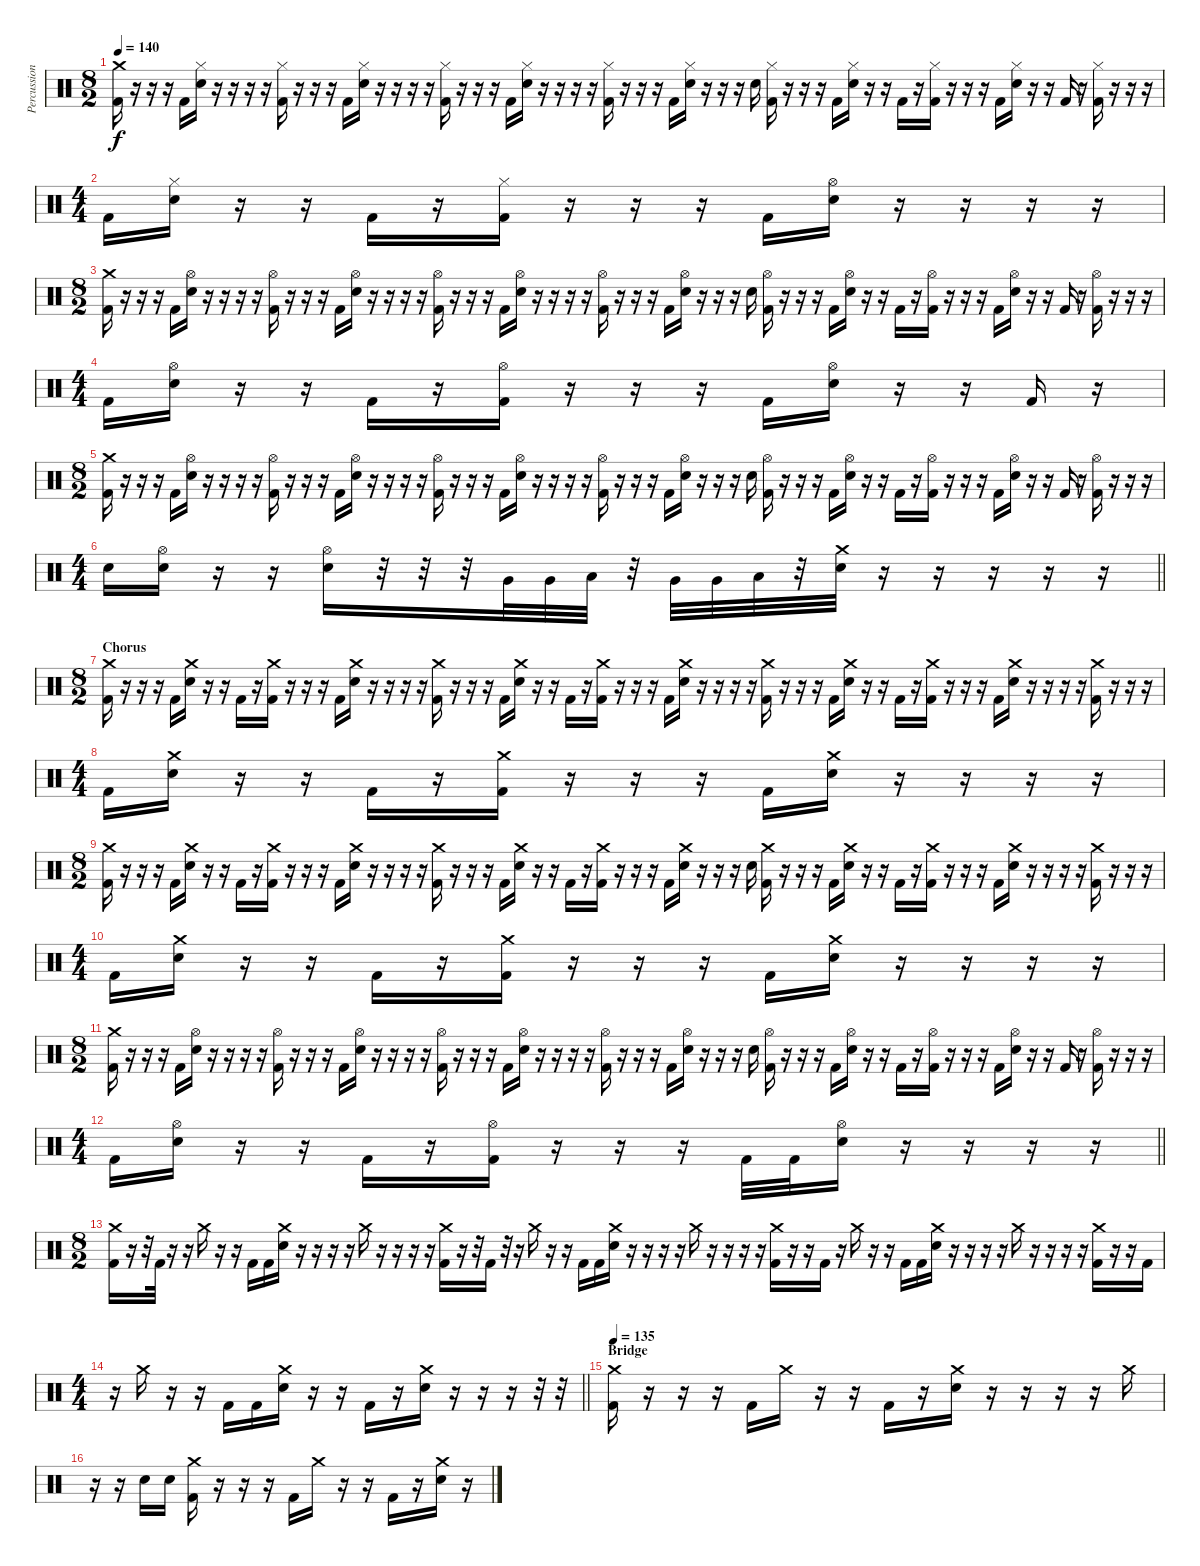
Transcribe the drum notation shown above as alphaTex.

\track ("Percussion" "Percussion") {instrument percussion}
\staff {score}
\articulation defaults
\ts (8 2)
\tempo 140
\clef neutral
\ks c
("Crash medium (hit)" "Kick (hit) 2").16{dy f} r.16 r.16 r.16 "Kick (hit) 2".16 ("Hi-Hat (closed)" "Electric Snare (hit)").16 r.16 r.16 r.16 r.16 ("Hi-Hat (closed)" "Kick (hit) 2").16 r.16 r.16 r.16 "Kick (hit) 2".16 ("Hi-Hat (closed)" "Electric Snare (hit)").16 r.16 r.16 r.16 r.16 ("Hi-Hat (closed)" "Kick (hit) 2").16 r.16 r.16 r.16 "Kick (hit) 2".16 ("Hi-Hat (closed)" "Electric Snare (hit)").16 r.16 r.16 r.16 r.16 ("Hi-Hat (closed)" "Kick (hit) 2").16 r.16 r.16 r.16 "Kick (hit) 2".16 ("Hi-Hat (closed)" "Electric Snare (hit)").16 r.16 r.16 r.16 "Electric Snare (hit)".16 ("Hi-Hat (closed)" "Kick (hit) 2").16 r.16 r.16 r.16 "Kick (hit) 2".16 ("Hi-Hat (closed)" "Electric Snare (hit)").16 r.16 r.16 "Kick (hit) 2".16 r.16 ("Hi-Hat (closed)" "Kick (hit) 2").16 r.16 r.16 r.16 "Kick (hit) 2".16 ("Hi-Hat (closed)" "Electric Snare (hit)").16 r.16 r.16 "Kick (hit) 2".16 r.16 ("Hi-Hat (closed)" "Kick (hit) 2").16 r.16 r.16 r.16 |
\ts (4 4)
"Kick (hit) 2".16 ("Hi-Hat (closed)" "Electric Snare (hit)").16 r.16 r.16 "Kick (hit) 2".16 r.16 ("Hi-Hat (closed)" "Kick (hit) 2").16 r.16 r.16 r.16 "Kick (hit) 2".16 ("Hi-Hat (open)" "Electric Snare (hit)").16 r.16 r.16 r.16 r.16 |
\ts (8 2)
("Crash medium (hit)" "Kick (hit) 2").16 r.16 r.16 r.16 "Kick (hit) 2".16 ("Hi-Hat (open)" "Electric Snare (hit)").16 r.16 r.16 r.16 r.16 ("Hi-Hat (open)" "Kick (hit) 2").16 r.16 r.16 r.16 "Kick (hit) 2".16 ("Hi-Hat (open)" "Electric Snare (hit)").16 r.16 r.16 r.16 r.16 ("Hi-Hat (open)" "Kick (hit) 2").16 r.16 r.16 r.16 "Kick (hit) 2".16 ("Hi-Hat (open)" "Electric Snare (hit)").16 r.16 r.16 r.16 r.16 ("Hi-Hat (open)" "Kick (hit) 2").16 r.16 r.16 r.16 "Kick (hit) 2".16 ("Hi-Hat (open)" "Electric Snare (hit)").16 r.16 r.16 r.16 "Electric Snare (hit)".16 ("Hi-Hat (open)" "Kick (hit) 2").16 r.16 r.16 r.16 "Kick (hit) 2".16 ("Hi-Hat (open)" "Electric Snare (hit)").16 r.16 r.16 "Kick (hit) 2".16 r.16 ("Hi-Hat (open)" "Kick (hit) 2").16 r.16 r.16 r.16 "Kick (hit) 2".16 ("Hi-Hat (open)" "Electric Snare (hit)").16 r.16 r.16 "Kick (hit) 2".16 r.16 ("Hi-Hat (open)" "Kick (hit) 2").16 r.16 r.16 r.16 |
\ts (4 4)
"Kick (hit) 2".16 ("Hi-Hat (open)" "Electric Snare (hit)").16 r.16 r.16 "Kick (hit) 2".16 r.16 ("Hi-Hat (open)" "Kick (hit) 2").16 r.16 r.16 r.16 "Kick (hit) 2".16 ("Hi-Hat (open)" "Electric Snare (hit)").16 r.16 r.16 "Kick (hit) 2".16 r.16 |
\ts (8 2)
("Crash medium (hit)" "Kick (hit) 2").16 r.16 r.16 r.16 "Kick (hit) 2".16 ("Hi-Hat (open)" "Electric Snare (hit)").16 r.16 r.16 r.16 r.16 ("Hi-Hat (open)" "Kick (hit) 2").16 r.16 r.16 r.16 "Kick (hit) 2".16 ("Hi-Hat (open)" "Electric Snare (hit)").16 r.16 r.16 r.16 r.16 ("Hi-Hat (open)" "Kick (hit) 2").16 r.16 r.16 r.16 "Kick (hit) 2".16 ("Hi-Hat (open)" "Electric Snare (hit)").16 r.16 r.16 r.16 r.16 ("Hi-Hat (open)" "Kick (hit) 2").16 r.16 r.16 r.16 "Kick (hit) 2".16 ("Hi-Hat (open)" "Electric Snare (hit)").16 r.16 r.16 r.16 "Electric Snare (hit)".16 ("Hi-Hat (open)" "Kick (hit) 2").16 r.16 r.16 r.16 "Kick (hit) 2".16 ("Hi-Hat (open)" "Electric Snare (hit)").16 r.16 r.16 "Kick (hit) 2".16 r.16 ("Hi-Hat (open)" "Kick (hit) 2").16 r.16 r.16 r.16 "Kick (hit) 2".16 ("Hi-Hat (open)" "Electric Snare (hit)").16 r.16 r.16 "Kick (hit) 2".16 r.16 ("Hi-Hat (open)" "Kick (hit) 2").16 r.16 r.16 r.16 |
\ts (4 4)
\barLineRight lightlight "Snare (hit)".16
("Hi-Hat (open)" "Electric Snare (hit)").16 r.16 r.16 ("Hi-Hat (open)" "Electric Snare (hit)").16 r.32 r.32 r.32 "Very Low Tom (hit)".32 "Very Low Tom (hit)".32 "Low Tom (hit)".32 r.32 "Very Low Tom (hit)".32 "Very Low Tom (hit)".32 "Low Tom (hit)".32 r.32 ("Crash medium (hit)" "Electric Snare (hit)").32 r.16 r.16 r.16 r.16 r.16 |
\ts (8 2)
\section ("" "Chorus")
("Crash medium (hit)" "Kick (hit) 2").16 r.16 r.16 r.16 "Kick (hit) 2".16 ("Crash medium (hit)" "Electric Snare (hit)").16 r.16 r.16 "Kick (hit) 2".16 r.16 ("Crash medium (hit)" "Kick (hit) 2").16 r.16 r.16 r.16 "Kick (hit) 2".16 ("Crash medium (hit)" "Electric Snare (hit)").16 r.16 r.16 r.16 r.16 ("Crash medium (hit)" "Kick (hit) 2").16 r.16 r.16 r.16 "Kick (hit) 2".16 ("Crash medium (hit)" "Electric Snare (hit)").16 r.16 r.16 "Kick (hit) 2".16 r.16 ("Crash medium (hit)" "Kick (hit) 2").16 r.16 r.16 r.16 "Kick (hit) 2".16 ("Crash medium (hit)" "Electric Snare (hit)").16 r.16 r.16 r.16 r.16 ("Crash medium (hit)" "Kick (hit) 2").16 r.16 r.16 r.16 "Kick (hit) 2".16 ("Crash medium (hit)" "Electric Snare (hit)").16 r.16 r.16 "Kick (hit) 2".16 r.16 ("Crash medium (hit)" "Kick (hit) 2").16 r.16 r.16 r.16 "Kick (hit) 2".16 ("Crash medium (hit)" "Electric Snare (hit)").16 r.16 r.16 r.16 r.16 ("Crash medium (hit)" "Kick (hit) 2").16 r.16 r.16 r.16 |
\ts (4 4)
"Kick (hit) 2".16 ("Crash medium (hit)" "Electric Snare (hit)").16 r.16 r.16 "Kick (hit) 2".16 r.16 ("Crash medium (hit)" "Kick (hit) 2").16 r.16 r.16 r.16 "Kick (hit) 2".16 ("Crash medium (hit)" "Electric Snare (hit)").16 r.16 r.16 r.16 r.16 |
\ts (8 2)
("Crash medium (hit)" "Kick (hit) 2").16 r.16 r.16 r.16 "Kick (hit) 2".16 ("Crash medium (hit)" "Electric Snare (hit)").16 r.16 r.16 "Kick (hit) 2".16 r.16 ("Crash medium (hit)" "Kick (hit) 2").16 r.16 r.16 r.16 "Kick (hit) 2".16 ("Crash medium (hit)" "Electric Snare (hit)").16 r.16 r.16 r.16 r.16 ("Crash medium (hit)" "Kick (hit) 2").16 r.16 r.16 r.16 "Kick (hit) 2".16 ("Crash medium (hit)" "Electric Snare (hit)").16 r.16 r.16 "Kick (hit) 2".16 r.16 ("Crash medium (hit)" "Kick (hit) 2").16 r.16 r.16 r.16 "Kick (hit) 2".16 ("Crash medium (hit)" "Electric Snare (hit)").16 r.16 r.16 r.16 "Electric Snare (hit)".16 ("Crash medium (hit)" "Kick (hit) 2").16 r.16 r.16 r.16 "Kick (hit) 2".16 ("Crash medium (hit)" "Electric Snare (hit)").16 r.16 r.16 "Kick (hit) 2".16 r.16 ("Crash medium (hit)" "Kick (hit) 2").16 r.16 r.16 r.16 "Kick (hit) 2".16 ("Crash medium (hit)" "Electric Snare (hit)").16 r.16 r.16 r.16 r.16 ("Crash medium (hit)" "Kick (hit) 2").16 r.16 r.16 r.16 |
\ts (4 4)
"Kick (hit) 2".16 ("Crash medium (hit)" "Electric Snare (hit)").16 r.16 r.16 "Kick (hit) 2".16 r.16 ("Crash medium (hit)" "Kick (hit) 2").16 r.16 r.16 r.16 "Kick (hit) 2".16 ("Crash medium (hit)" "Electric Snare (hit)").16 r.16 r.16 r.16 r.16 |
\ts (8 2)
("Crash medium (hit)" "Kick (hit) 2").16 r.16 r.16 r.16 "Kick (hit) 2".16 ("Hi-Hat (open)" "Electric Snare (hit)").16 r.16 r.16 r.16 r.16 ("Hi-Hat (open)" "Kick (hit) 2").16 r.16 r.16 r.16 "Kick (hit) 2".16 ("Hi-Hat (open)" "Electric Snare (hit)").16 r.16 r.16 r.16 r.16 ("Hi-Hat (open)" "Kick (hit) 2").16 r.16 r.16 r.16 "Kick (hit) 2".16 ("Hi-Hat (open)" "Electric Snare (hit)").16 r.16 r.16 r.16 r.16 ("Hi-Hat (open)" "Kick (hit) 2").16 r.16 r.16 r.16 "Kick (hit) 2".16 ("Hi-Hat (open)" "Electric Snare (hit)").16 r.16 r.16 r.16 "Electric Snare (hit)".16 ("Hi-Hat (open)" "Kick (hit) 2").16 r.16 r.16 r.16 "Kick (hit) 2".16 ("Hi-Hat (open)" "Electric Snare (hit)").16 r.16 r.16 "Kick (hit) 2".16 r.16 ("Hi-Hat (open)" "Kick (hit) 2").16 r.16 r.16 r.16 "Kick (hit) 2".16 ("Hi-Hat (open)" "Electric Snare (hit)").16 r.16 r.16 "Kick (hit) 2".16 r.16 ("Hi-Hat (open)" "Kick (hit) 2").16 r.16 r.16 r.16 |
\ts (4 4)
\barLineRight lightlight "Kick (hit) 2".16
("Hi-Hat (open)" "Electric Snare (hit)").16 r.16 r.16 "Kick (hit) 2".16 r.16 ("Hi-Hat (open)" "Kick (hit) 2").16 r.16 r.16 r.16 "Kick (hit) 2".32 "Kick (hit) 2".32 ("Hi-Hat (open)" "Electric Snare (hit)").16 r.16 r.16 r.16 r.16 |
\ts (8 2)
("Crash medium (hit)" "Kick (hit) 2").16 r.16 r.32 "Kick (hit) 2".32 r.16 r.16 "Crash medium (hit)".16 r.16 r.16 "Kick (hit) 2".16 "Kick (hit) 2".16 ("Crash medium (hit)" "Electric Snare (hit)").16 r.16 r.16 r.16 r.16 "Crash medium (hit)".16 r.16 r.16 r.16 r.16 ("Crash medium (hit)" "Kick (hit) 2").16 r.16 r.32 "Kick (hit) 2".16 r.32 r.16 "Crash medium (hit)".16 r.16 r.16 "Kick (hit) 2".16 "Kick (hit) 2".16 ("Crash medium (hit)" "Electric Snare (hit)").16 r.16 r.16 r.16 r.16 "Crash medium (hit)".16 r.16 r.16 r.16 r.16 ("Crash medium (hit)" "Kick (hit) 2").16 r.16 r.16 "Kick (hit) 2".16 r.16 "Crash medium (hit)".16 r.16 r.16 "Kick (hit) 2".16 "Kick (hit) 2".16 ("Crash medium (hit)" "Electric Snare (hit)").16 r.16 r.16 r.16 r.16 "Crash medium (hit)".16 r.16 r.16 r.16 r.16 ("Crash medium (hit)" "Kick (hit) 2").16 r.16 r.16 "Kick (hit) 2".16 |
\ts (4 4)
\barLineRight lightlight
r.16 "Crash medium (hit)".16 r.16 r.16 "Kick (hit) 2".16 "Kick (hit) 2".16 ("Crash medium (hit)" "Electric Snare (hit)").16 r.16 r.16 "Kick (hit) 2".16 r.16 ("Crash medium (hit)" "Electric Snare (hit)").16 r.16 r.16 r.16 r.32 r.32 |
\section ("" "Bridge")
\tempo 135
("Crash medium (hit)" "Kick (hit) 2").16 r.16 r.16 r.16 "Kick (hit) 2".16 "Crash medium (hit)".16 r.16 r.16 "Kick (hit) 2".16 r.16 ("Crash medium (hit)" "Electric Snare (hit)").16 r.16 r.16 r.16 r.16 "Crash medium (hit)".16 |
r.16 r.16 "Electric Snare (hit)".16 "Electric Snare (hit)".16 ("Crash medium (hit)" "Kick (hit) 2").16 r.16 r.16 r.16 "Kick (hit) 2".16 "Crash medium (hit)".16 r.16 r.16 "Kick (hit) 2".16 r.16 ("Crash medium (hit)" "Electric Snare (hit)").16 r.16
